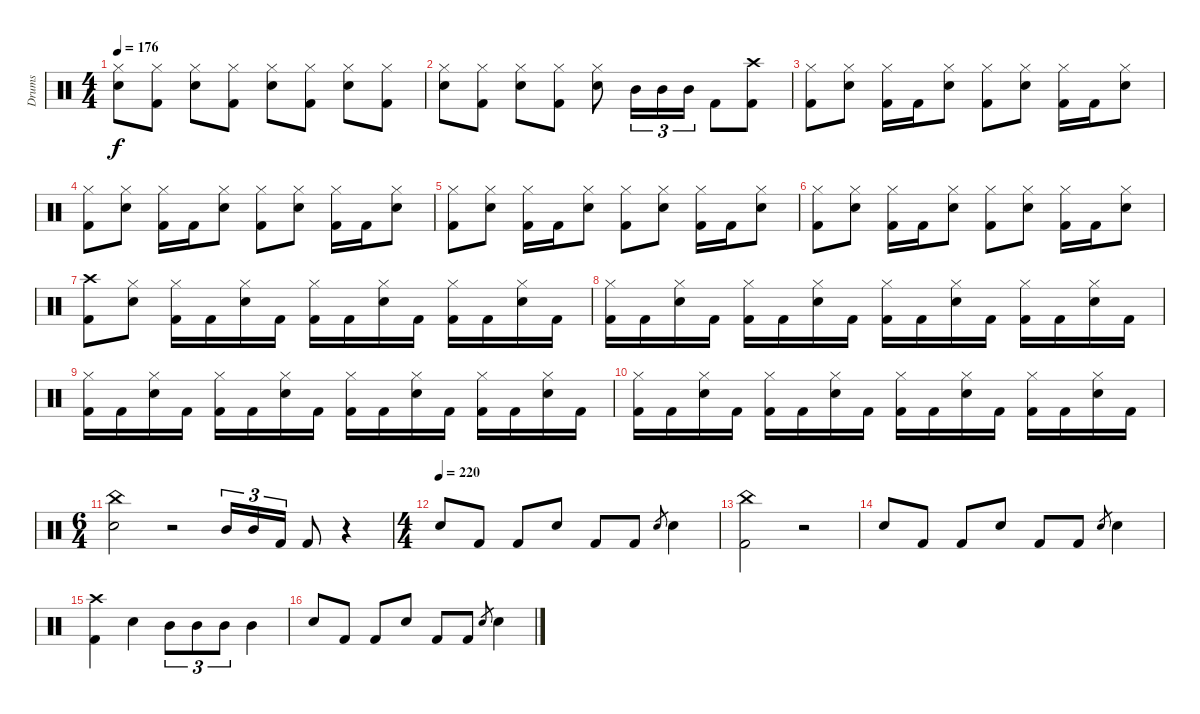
\track ("Drums" "Drums") {instrument percussion}
\staff {score}
\articulation defaults
\ts (4 4)
\tempo 176
\clef neutral
\ks c
("Hi-Hat (closed)" "Electric Snare (hit)").8{dy f} ("Hi-Hat (closed)" "Kick (hit) 2").8 ("Hi-Hat (closed)" "Electric Snare (hit)").8 ("Hi-Hat (closed)" "Kick (hit) 2").8 ("Hi-Hat (closed)" "Electric Snare (hit)").8 ("Hi-Hat (closed)" "Kick (hit) 2").8 ("Hi-Hat (closed)" "Electric Snare (hit)").8 ("Hi-Hat (closed)" "Kick (hit) 2").8 |
("Hi-Hat (closed)" "Electric Snare (hit)").8 ("Hi-Hat (closed)" "Kick (hit) 2").8 ("Hi-Hat (closed)" "Electric Snare (hit)").8 ("Hi-Hat (closed)" "Kick (hit) 2").8 ("Hi-Hat (closed)" "Electric Snare (hit)").8 "Mid Tom (hit)".16{tu (3 2)} "Mid Tom (hit)".16{tu (3 2)} "Mid Tom (hit)".16{tu (3 2)} "Kick (hit) 2".8 ("Crash high (hit)" "Kick (hit) 2").8 |
("Hi-Hat (closed)" "Kick (hit) 2").8 ("Hi-Hat (closed)" "Electric Snare (hit)").8 ("Hi-Hat (closed)" "Kick (hit) 2").16 "Kick (hit) 2".16 ("Hi-Hat (closed)" "Electric Snare (hit)").8 ("Hi-Hat (closed)" "Kick (hit) 2").8 ("Hi-Hat (closed)" "Electric Snare (hit)").8 ("Hi-Hat (closed)" "Kick (hit) 2").16 "Kick (hit) 2".16 ("Hi-Hat (closed)" "Electric Snare (hit)").8 |
("Hi-Hat (closed)" "Kick (hit) 2").8 ("Hi-Hat (closed)" "Electric Snare (hit)").8 ("Hi-Hat (closed)" "Kick (hit) 2").16 "Kick (hit) 2".16 ("Hi-Hat (closed)" "Electric Snare (hit)").8 ("Hi-Hat (closed)" "Kick (hit) 2").8 ("Hi-Hat (closed)" "Electric Snare (hit)").8 ("Hi-Hat (closed)" "Kick (hit) 2").16 "Kick (hit) 2".16 ("Hi-Hat (closed)" "Electric Snare (hit)").8 |
("Hi-Hat (closed)" "Kick (hit) 2").8 ("Hi-Hat (closed)" "Electric Snare (hit)").8 ("Hi-Hat (closed)" "Kick (hit) 2").16 "Kick (hit) 2".16 ("Hi-Hat (closed)" "Electric Snare (hit)").8 ("Hi-Hat (closed)" "Kick (hit) 2").8 ("Hi-Hat (closed)" "Electric Snare (hit)").8 ("Hi-Hat (closed)" "Kick (hit) 2").16 "Kick (hit) 2".16 ("Hi-Hat (closed)" "Electric Snare (hit)").8 |
("Hi-Hat (closed)" "Kick (hit) 2").8 ("Hi-Hat (closed)" "Electric Snare (hit)").8 ("Hi-Hat (closed)" "Kick (hit) 2").16 "Kick (hit) 2".16 ("Hi-Hat (closed)" "Electric Snare (hit)").8 ("Hi-Hat (closed)" "Kick (hit) 2").8 ("Hi-Hat (closed)" "Electric Snare (hit)").8 ("Hi-Hat (closed)" "Kick (hit) 2").16 "Kick (hit) 2".16 ("Hi-Hat (closed)" "Electric Snare (hit)").8 |
("Crash high (hit)" "Kick (hit) 2").8 ("Hi-Hat (closed)" "Electric Snare (hit)").8 ("Hi-Hat (closed)" "Kick (hit) 2").16 "Kick (hit) 2".16 ("Hi-Hat (closed)" "Electric Snare (hit)").16 "Kick (hit) 2".16 ("Hi-Hat (closed)" "Kick (hit) 2").16 "Kick (hit) 2".16 ("Hi-Hat (closed)" "Electric Snare (hit)").16 "Kick (hit) 2".16 ("Hi-Hat (closed)" "Kick (hit) 2").16 "Kick (hit) 2".16 ("Hi-Hat (closed)" "Electric Snare (hit)").16 "Kick (hit) 2".16 |
("Hi-Hat (closed)" "Kick (hit) 2").16 "Kick (hit) 2".16 ("Hi-Hat (closed)" "Electric Snare (hit)").16 "Kick (hit) 2".16 ("Hi-Hat (closed)" "Kick (hit) 2").16 "Kick (hit) 2".16 ("Hi-Hat (closed)" "Electric Snare (hit)").16 "Kick (hit) 2".16 ("Hi-Hat (closed)" "Kick (hit) 2").16 "Kick (hit) 2".16 ("Hi-Hat (closed)" "Electric Snare (hit)").16 "Kick (hit) 2".16 ("Hi-Hat (closed)" "Kick (hit) 2").16 "Kick (hit) 2".16 ("Hi-Hat (closed)" "Electric Snare (hit)").16 "Kick (hit) 2".16 |
("Hi-Hat (closed)" "Kick (hit) 2").16 "Kick (hit) 2".16 ("Hi-Hat (closed)" "Electric Snare (hit)").16 "Kick (hit) 2".16 ("Hi-Hat (closed)" "Kick (hit) 2").16 "Kick (hit) 2".16 ("Hi-Hat (closed)" "Electric Snare (hit)").16 "Kick (hit) 2".16 ("Hi-Hat (closed)" "Kick (hit) 2").16 "Kick (hit) 2".16 ("Hi-Hat (closed)" "Electric Snare (hit)").16 "Kick (hit) 2".16 ("Hi-Hat (closed)" "Kick (hit) 2").16 "Kick (hit) 2".16 ("Hi-Hat (closed)" "Electric Snare (hit)").16 "Kick (hit) 2".16 |
("Hi-Hat (closed)" "Kick (hit) 2").16 "Kick (hit) 2".16 ("Hi-Hat (closed)" "Electric Snare (hit)").16 "Kick (hit) 2".16 ("Hi-Hat (closed)" "Kick (hit) 2").16 "Kick (hit) 2".16 ("Hi-Hat (closed)" "Electric Snare (hit)").16 "Kick (hit) 2".16 ("Hi-Hat (closed)" "Kick (hit) 2").16 "Kick (hit) 2".16 ("Hi-Hat (closed)" "Electric Snare (hit)").16 "Kick (hit) 2".16 ("Hi-Hat (closed)" "Kick (hit) 2").16 "Kick (hit) 2".16 ("Hi-Hat (closed)" "Electric Snare (hit)").16 "Kick (hit) 2".16 |
\ts (6 4)
("China (hit)" "Electric Snare (hit)").2 r.2 "Mid Tom (hit)".16{tu (3 2)} "Mid Tom (hit)".16{tu (3 2)} "Kick (hit) 2".16{tu (3 2)} "Kick (hit) 2".8 r.4 |
\ts (4 4)
\tempo (220)
"Electric Snare (hit)".8 "Kick (hit) 2".8 "Kick (hit) 2".8 "Electric Snare (hit)".8 "Kick (hit) 2".8 "Kick (hit) 2".8 "Electric Snare (hit)".8{gr} "Electric Snare (hit)".4 |
("China (hit)" "Kick (hit) 2").2 r.2 |
"Electric Snare (hit)".8 "Kick (hit) 2".8 "Kick (hit) 2".8 "Electric Snare (hit)".8 "Kick (hit) 2".8 "Kick (hit) 2".8 "Electric Snare (hit)".8{gr} "Electric Snare (hit)".4 |
("Crash high (hit)" "Kick (hit) 2").4 "Electric Snare (hit)".4 "Mid Tom (hit)".8{tu (3 2)} "Mid Tom (hit)".8{tu (3 2)} "Mid Tom (hit)".8{tu (3 2)} "Mid Tom (hit)".4 |
"Electric Snare (hit)".8 "Kick (hit) 2".8 "Kick (hit) 2".8 "Electric Snare (hit)".8 "Kick (hit) 2".8 "Kick (hit) 2".8 "Electric Snare (hit)".8{gr} "Electric Snare (hit)".4
